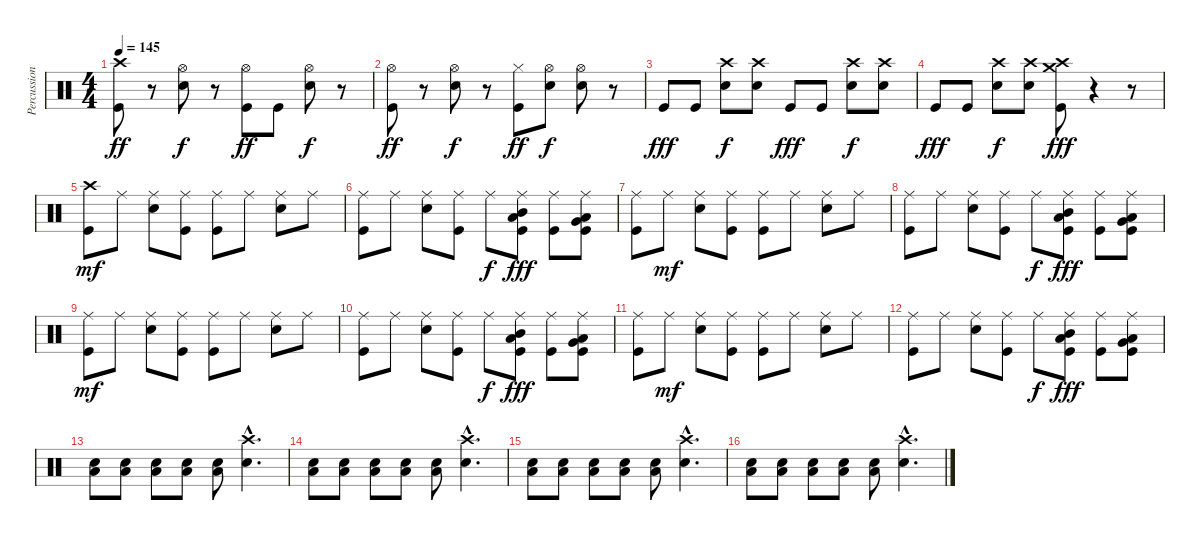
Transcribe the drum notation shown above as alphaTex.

\track ("Percussion" "Percussion") {instrument percussion}
\staff {score}
\articulation defaults
\ts (4 4)
\tempo 145
\clef neutral
\ks c
("Crash high (hit)" "Kick (hit)").8{dy ff} r.8 ("Hi-Hat (open)" "Snare (hit) 2").8{dy f} r.8 ("Hi-Hat (open)" "Kick (hit)").8{dy ff} "Kick (hit)".8 ("Hi-Hat (open)" "Snare (hit) 2").8{dy f} r.8 |
("Hi-Hat (open)" "Kick (hit)").8{dy ff} r.8 ("Hi-Hat (open)" "Snare (hit) 2").8{dy f} r.8 ("Hi-Hat (closed)" "Kick (hit)").8{dy ff} ("Hi-Hat (open)" "Snare (hit) 2").8{dy f} ("Hi-Hat (open)" "Snare (hit) 2").8 r.8 |
"Kick (hit)".8{dy fff} "Kick (hit)".8 ("Crash high (hit)" "Snare (hit) 2").8{dy f} ("Crash high (hit)" "Snare (hit) 2").8 "Kick (hit)".8{dy fff} "Kick (hit)".8 ("Crash high (hit)" "Snare (hit) 2").8{dy f} ("Crash high (hit)" "Snare (hit) 2").8 |
"Kick (hit)".8{dy fff} "Kick (hit)".8 ("Crash high (hit)" "Snare (hit) 2").8{dy f} ("Crash high (hit)" "Snare (hit) 2").8 ("Crash high (hit)" "Crash medium (hit)" "Kick (hit)").8{dy fff} r.4 r.8 |
("Crash high (hit)" "Kick (hit)").8{dy mf} "Ride (middle)".8 ("Ride (middle)" "Snare (hit) 2").8 ("Ride (middle)" "Kick (hit)").8 ("Ride (middle)" "Kick (hit)").8 "Ride (middle)".8 ("Ride (middle)" "Snare (hit) 2").8 "Ride (middle)".8 |
("Ride (middle)" "Kick (hit)").8 "Ride (middle)".8 ("Ride (middle)" "Snare (hit) 2").8 ("Ride (middle)" "Kick (hit)").8 "Ride (middle)".8{dy f} ("Ride (middle)" "Mid Tom (hit)" "Low Tom (hit)" "Kick (hit)").8{dy fff} ("Ride (middle)" "Kick (hit)").8 ("Ride (middle)" "Very Low Tom (hit)" "Low Tom (hit)" "Kick (hit)").8 |
("Ride (middle)" "Kick (hit)").8 "Ride (middle)".8{dy mf} ("Ride (middle)" "Snare (hit) 2").8 ("Ride (middle)" "Kick (hit)").8 ("Ride (middle)" "Kick (hit)").8 "Ride (middle)".8 ("Ride (middle)" "Snare (hit) 2").8 "Ride (middle)".8 |
("Ride (middle)" "Kick (hit)").8 "Ride (middle)".8 ("Ride (middle)" "Snare (hit) 2").8 ("Ride (middle)" "Kick (hit)").8 "Ride (middle)".8{dy f} ("Ride (middle)" "Mid Tom (hit)" "Low Tom (hit)" "Kick (hit)").8{dy fff} ("Ride (middle)" "Kick (hit)").8 ("Ride (middle)" "Very Low Tom (hit)" "Low Tom (hit)" "Kick (hit)").8 |
("Ride (middle)" "Kick (hit)").8{dy mf} "Ride (middle)".8 ("Ride (middle)" "Snare (hit) 2").8 ("Ride (middle)" "Kick (hit)").8 ("Ride (middle)" "Kick (hit)").8 "Ride (middle)".8 ("Ride (middle)" "Snare (hit) 2").8 "Ride (middle)".8 |
("Ride (middle)" "Kick (hit)").8 "Ride (middle)".8 ("Ride (middle)" "Snare (hit) 2").8 ("Ride (middle)" "Kick (hit)").8 "Ride (middle)".8{dy f} ("Ride (middle)" "Mid Tom (hit)" "Low Tom (hit)" "Kick (hit)").8{dy fff} ("Ride (middle)" "Kick (hit)").8 ("Ride (middle)" "Very Low Tom (hit)" "Low Tom (hit)" "Kick (hit)").8 |
("Ride (middle)" "Kick (hit)").8 "Ride (middle)".8{dy mf} ("Ride (middle)" "Snare (hit) 2").8 ("Ride (middle)" "Kick (hit)").8 ("Ride (middle)" "Kick (hit)").8 "Ride (middle)".8 ("Ride (middle)" "Snare (hit) 2").8 "Ride (middle)".8 |
("Ride (middle)" "Kick (hit)").8 "Ride (middle)".8 ("Ride (middle)" "Snare (hit) 2").8 ("Ride (middle)" "Kick (hit)").8 "Ride (middle)".8{dy f} ("Ride (middle)" "Mid Tom (hit)" "Low Tom (hit)" "Kick (hit)").8{dy fff} ("Ride (middle)" "Kick (hit)").8 ("Ride (middle)" "Very Low Tom (hit)" "Low Tom (hit)" "Kick (hit)").8 |
("Low Floor Tom (hit)" "Snare (hit) 2").8 ("Low Floor Tom (hit)" "Snare (hit) 2").8 ("Low Floor Tom (hit)" "Snare (hit) 2").8 ("Low Floor Tom (hit)" "Snare (hit) 2").8 ("Low Floor Tom (hit)" "Snare (hit) 2").8 ("Crash high (hit)"{hac} "Snare (hit) 2"{hac}).4{d} |
("Low Floor Tom (hit)" "Snare (hit) 2").8 ("Low Floor Tom (hit)" "Snare (hit) 2").8 ("Low Floor Tom (hit)" "Snare (hit) 2").8 ("Low Floor Tom (hit)" "Snare (hit) 2").8 ("Low Floor Tom (hit)" "Snare (hit) 2").8 ("Crash high (hit)"{hac} "Snare (hit) 2"{hac}).4{d} |
("Low Floor Tom (hit)" "Snare (hit) 2").8 ("Low Floor Tom (hit)" "Snare (hit) 2").8 ("Low Floor Tom (hit)" "Snare (hit) 2").8 ("Low Floor Tom (hit)" "Snare (hit) 2").8 ("Low Floor Tom (hit)" "Snare (hit) 2").8 ("Crash high (hit)"{hac} "Snare (hit) 2"{hac}).4{d} |
("Low Floor Tom (hit)" "Snare (hit) 2").8 ("Low Floor Tom (hit)" "Snare (hit) 2").8 ("Low Floor Tom (hit)" "Snare (hit) 2").8 ("Low Floor Tom (hit)" "Snare (hit) 2").8 ("Low Floor Tom (hit)" "Snare (hit) 2").8 ("Crash high (hit)"{hac} "Snare (hit) 2"{hac}).4{d}
